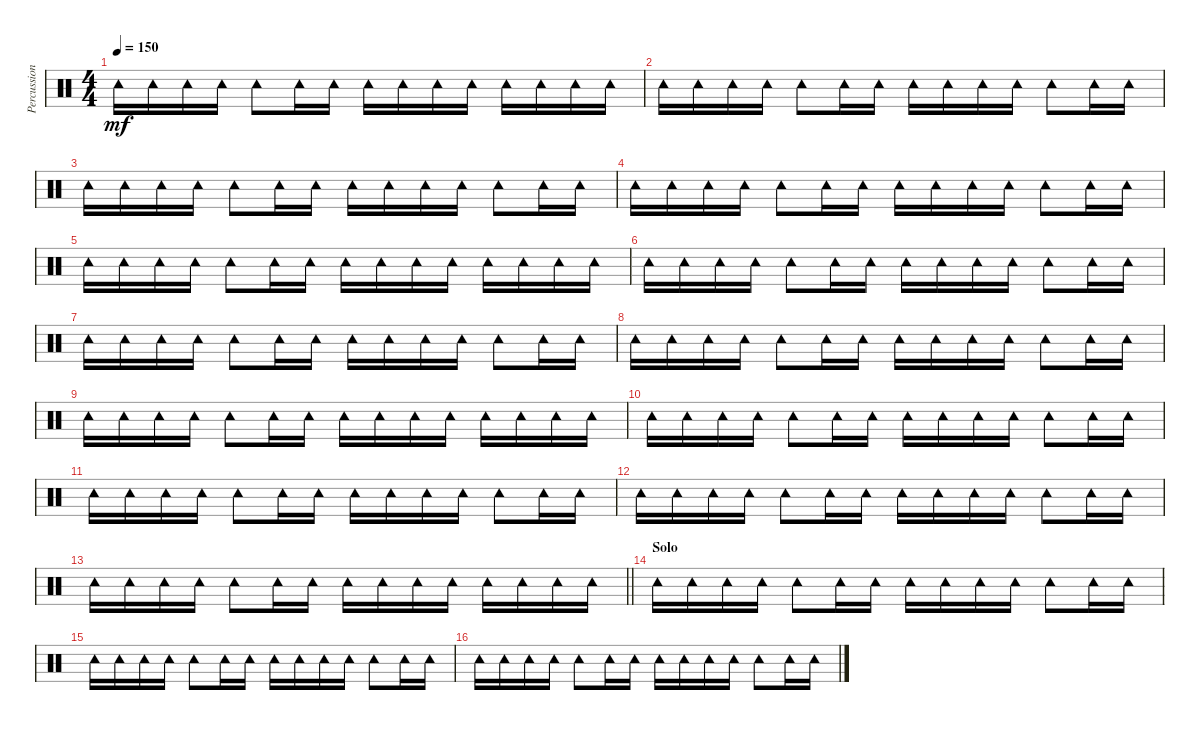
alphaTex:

\track ("Percussion" "Percussion") {instrument percussion}
\staff {score}
\articulation defaults
\ts (4 4)
\tempo 150
\clef neutral
\ks c "Tambourine (hit)".16{dy mf} "Tambourine (hit)".16 "Tambourine (hit)".16 "Tambourine (hit)".16 "Tambourine (hit)".8 "Tambourine (hit)".16 "Tambourine (hit)".16 "Tambourine (hit)".16 "Tambourine (hit)".16 "Tambourine (hit)".16 "Tambourine (hit)".16 "Tambourine (hit)".16 "Tambourine (hit)".16 "Tambourine (hit)".16 "Tambourine (hit)".16
|
"Tambourine (hit)".16 "Tambourine (hit)".16 "Tambourine (hit)".16 "Tambourine (hit)".16 "Tambourine (hit)".8 "Tambourine (hit)".16 "Tambourine (hit)".16 "Tambourine (hit)".16 "Tambourine (hit)".16 "Tambourine (hit)".16 "Tambourine (hit)".16 "Tambourine (hit)".8 "Tambourine (hit)".16 "Tambourine (hit)".16 |
"Tambourine (hit)".16 "Tambourine (hit)".16 "Tambourine (hit)".16 "Tambourine (hit)".16 "Tambourine (hit)".8 "Tambourine (hit)".16 "Tambourine (hit)".16 "Tambourine (hit)".16 "Tambourine (hit)".16 "Tambourine (hit)".16 "Tambourine (hit)".16 "Tambourine (hit)".8 "Tambourine (hit)".16 "Tambourine (hit)".16 |
"Tambourine (hit)".16 "Tambourine (hit)".16 "Tambourine (hit)".16 "Tambourine (hit)".16 "Tambourine (hit)".8 "Tambourine (hit)".16 "Tambourine (hit)".16 "Tambourine (hit)".16 "Tambourine (hit)".16 "Tambourine (hit)".16 "Tambourine (hit)".16 "Tambourine (hit)".8 "Tambourine (hit)".16 "Tambourine (hit)".16 |
"Tambourine (hit)".16 "Tambourine (hit)".16 "Tambourine (hit)".16 "Tambourine (hit)".16 "Tambourine (hit)".8 "Tambourine (hit)".16 "Tambourine (hit)".16 "Tambourine (hit)".16 "Tambourine (hit)".16 "Tambourine (hit)".16 "Tambourine (hit)".16 "Tambourine (hit)".16 "Tambourine (hit)".16 "Tambourine (hit)".16 "Tambourine (hit)".16 |
"Tambourine (hit)".16 "Tambourine (hit)".16 "Tambourine (hit)".16 "Tambourine (hit)".16 "Tambourine (hit)".8 "Tambourine (hit)".16 "Tambourine (hit)".16 "Tambourine (hit)".16 "Tambourine (hit)".16 "Tambourine (hit)".16 "Tambourine (hit)".16 "Tambourine (hit)".8 "Tambourine (hit)".16 "Tambourine (hit)".16 |
"Tambourine (hit)".16 "Tambourine (hit)".16 "Tambourine (hit)".16 "Tambourine (hit)".16 "Tambourine (hit)".8 "Tambourine (hit)".16 "Tambourine (hit)".16 "Tambourine (hit)".16 "Tambourine (hit)".16 "Tambourine (hit)".16 "Tambourine (hit)".16 "Tambourine (hit)".8 "Tambourine (hit)".16 "Tambourine (hit)".16 |
"Tambourine (hit)".16 "Tambourine (hit)".16 "Tambourine (hit)".16 "Tambourine (hit)".16 "Tambourine (hit)".8 "Tambourine (hit)".16 "Tambourine (hit)".16 "Tambourine (hit)".16 "Tambourine (hit)".16 "Tambourine (hit)".16 "Tambourine (hit)".16 "Tambourine (hit)".8 "Tambourine (hit)".16 "Tambourine (hit)".16 |
"Tambourine (hit)".16 "Tambourine (hit)".16 "Tambourine (hit)".16 "Tambourine (hit)".16 "Tambourine (hit)".8 "Tambourine (hit)".16 "Tambourine (hit)".16 "Tambourine (hit)".16 "Tambourine (hit)".16 "Tambourine (hit)".16 "Tambourine (hit)".16 "Tambourine (hit)".16 "Tambourine (hit)".16 "Tambourine (hit)".16 "Tambourine (hit)".16 |
"Tambourine (hit)".16 "Tambourine (hit)".16 "Tambourine (hit)".16 "Tambourine (hit)".16 "Tambourine (hit)".8 "Tambourine (hit)".16 "Tambourine (hit)".16 "Tambourine (hit)".16 "Tambourine (hit)".16 "Tambourine (hit)".16 "Tambourine (hit)".16 "Tambourine (hit)".8 "Tambourine (hit)".16 "Tambourine (hit)".16 |
"Tambourine (hit)".16 "Tambourine (hit)".16 "Tambourine (hit)".16 "Tambourine (hit)".16 "Tambourine (hit)".8 "Tambourine (hit)".16 "Tambourine (hit)".16 "Tambourine (hit)".16 "Tambourine (hit)".16 "Tambourine (hit)".16 "Tambourine (hit)".16 "Tambourine (hit)".8 "Tambourine (hit)".16 "Tambourine (hit)".16 |
"Tambourine (hit)".16 "Tambourine (hit)".16 "Tambourine (hit)".16 "Tambourine (hit)".16 "Tambourine (hit)".8 "Tambourine (hit)".16 "Tambourine (hit)".16 "Tambourine (hit)".16 "Tambourine (hit)".16 "Tambourine (hit)".16 "Tambourine (hit)".16 "Tambourine (hit)".8 "Tambourine (hit)".16 "Tambourine (hit)".16 |
\barLineRight lightlight "Tambourine (hit)".16 "Tambourine (hit)".16 "Tambourine (hit)".16 "Tambourine (hit)".16 "Tambourine (hit)".8 "Tambourine (hit)".16 "Tambourine (hit)".16 "Tambourine (hit)".16 "Tambourine (hit)".16 "Tambourine (hit)".16 "Tambourine (hit)".16 "Tambourine (hit)".16 "Tambourine (hit)".16 "Tambourine (hit)".16 "Tambourine (hit)".16
|
\section ("" "Solo")
"Tambourine (hit)".16 "Tambourine (hit)".16 "Tambourine (hit)".16 "Tambourine (hit)".16 "Tambourine (hit)".8 "Tambourine (hit)".16 "Tambourine (hit)".16 "Tambourine (hit)".16 "Tambourine (hit)".16 "Tambourine (hit)".16 "Tambourine (hit)".16 "Tambourine (hit)".8 "Tambourine (hit)".16 "Tambourine (hit)".16 |
"Tambourine (hit)".16 "Tambourine (hit)".16 "Tambourine (hit)".16 "Tambourine (hit)".16 "Tambourine (hit)".8 "Tambourine (hit)".16 "Tambourine (hit)".16 "Tambourine (hit)".16 "Tambourine (hit)".16 "Tambourine (hit)".16 "Tambourine (hit)".16 "Tambourine (hit)".8 "Tambourine (hit)".16 "Tambourine (hit)".16 |
"Tambourine (hit)".16 "Tambourine (hit)".16 "Tambourine (hit)".16 "Tambourine (hit)".16 "Tambourine (hit)".8 "Tambourine (hit)".16 "Tambourine (hit)".16 "Tambourine (hit)".16 "Tambourine (hit)".16 "Tambourine (hit)".16 "Tambourine (hit)".16 "Tambourine (hit)".8 "Tambourine (hit)".16 "Tambourine (hit)".16
